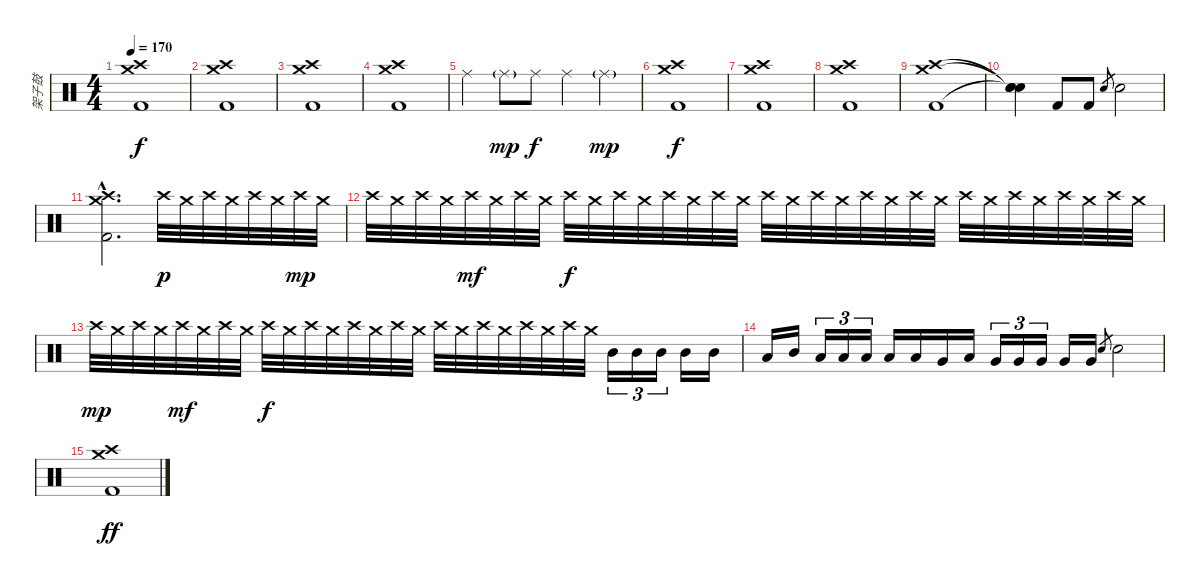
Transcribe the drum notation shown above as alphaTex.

\track ("架子鼓" "架子鼓") {instrument percussion}
\staff {score}
\articulation defaults
\ts (4 4)
\tempo 170
\clef neutral
\ks c
("Kick (hit) 2" "Crash medium (hit)" "Crash high (hit)").1{dy f} |
("Kick (hit) 2" "Crash medium (hit)" "Crash high (hit)").1 |
("Kick (hit) 2" "Crash medium (hit)" "Crash high (hit)").1 |
("Kick (hit) 2" "Crash medium (hit)" "Crash high (hit)").1 |
"Ride (middle)".4 "Ride (middle)"{g}.8{dy mp} "Ride (middle)".8{dy f} "Ride (middle)".4 "Ride (middle)"{g}.4{dy mp} |
("Kick (hit) 2" "Crash medium (hit)" "Crash high (hit)").1{dy f volume 12} |
("Kick (hit) 2" "Crash medium (hit)" "Crash high (hit)").1 |
("Kick (hit) 2" "Crash medium (hit)" "Crash high (hit)").1 |
("Kick (hit) 2" "Crash medium (hit)" "Crash high (hit)").1 |
("Snare (hit)"{t} "Snare (hit)"{t} "Snare (hit)"{t}).4 "Kick (hit) 2".8 "Kick (hit) 2".8 "Snare (hit) 2".8{gr} "Snare (hit) 2".2 |
("Kick (hit) 2"{hac} "Crash medium (hit)"{hac} "Crash high (hit)"{hac}).2{d} "Crash high (hit)".32{dy p} "Crash medium (hit)".32 "Crash high (hit)".32 "Crash medium (hit)".32 "Crash high (hit)".32 "Crash medium (hit)".32 "Crash high (hit)".32{dy mp} "Crash medium (hit)".32 |
"Crash high (hit)".32 "Crash medium (hit)".32 "Crash high (hit)".32 "Crash medium (hit)".32 "Crash high (hit)".32{dy mf} "Crash medium (hit)".32 "Crash high (hit)".32 "Crash medium (hit)".32 "Crash high (hit)".32{dy f} "Crash medium (hit)".32 "Crash high (hit)".32 "Crash medium (hit)".32 "Crash high (hit)".32 "Crash medium (hit)".32 "Crash high (hit)".32 "Crash medium (hit)".32 "Crash high (hit)".32 "Crash medium (hit)".32 "Crash high (hit)".32 "Crash medium (hit)".32 "Crash high (hit)".32 "Crash medium (hit)".32 "Crash high (hit)".32 "Crash medium (hit)".32 "Crash high (hit)".32 "Crash medium (hit)".32 "Crash high (hit)".32 "Crash medium (hit)".32 "Crash high (hit)".32 "Crash medium (hit)".32 "Crash high (hit)".32 "Crash medium (hit)".32 |
"Crash high (hit)".32{dy mp} "Crash medium (hit)".32 "Crash high (hit)".32 "Crash medium (hit)".32 "Crash high (hit)".32{dy mf} "Crash medium (hit)".32 "Crash high (hit)".32 "Crash medium (hit)".32 "Crash high (hit)".32{dy f} "Crash medium (hit)".32 "Crash high (hit)".32 "Crash medium (hit)".32 "Crash high (hit)".32 "Crash medium (hit)".32 "Crash high (hit)".32 "Crash medium (hit)".32 "Crash high (hit)".32 "Crash medium (hit)".32 "Crash high (hit)".32 "Crash medium (hit)".32 "Crash high (hit)".32 "Crash medium (hit)".32 "Crash high (hit)".32 "Crash medium (hit)".32 "Mid Tom (hit)".16{tu (3 2)} "Mid Tom (hit)".16{tu (3 2)} "Mid Tom (hit)".16{tu (3 2)} "Mid Tom (hit)".16 "Mid Tom (hit)".16 |
"Low Tom (hit)".16 "Mid Tom (hit)".16 "Low Tom (hit)".16{tu (3 2)} "Low Tom (hit)".16{tu (3 2)} "Low Tom (hit)".16{tu (3 2)} "Low Tom (hit)".16 "Low Tom (hit)".16 "Very Low Tom (hit)".16 "Low Tom (hit)".16 "Very Low Tom (hit)".16{tu (3 2)} "Very Low Tom (hit)".16{tu (3 2)} "Very Low Tom (hit)".16{tu (3 2)} "Very Low Tom (hit)".16 "Very Low Tom (hit)".16 "Snare (hit) 2".8{gr} "Snare (hit) 2".2 |
("Kick (hit) 2" "Crash medium (hit)" "Crash high (hit)").1{dy ff}
